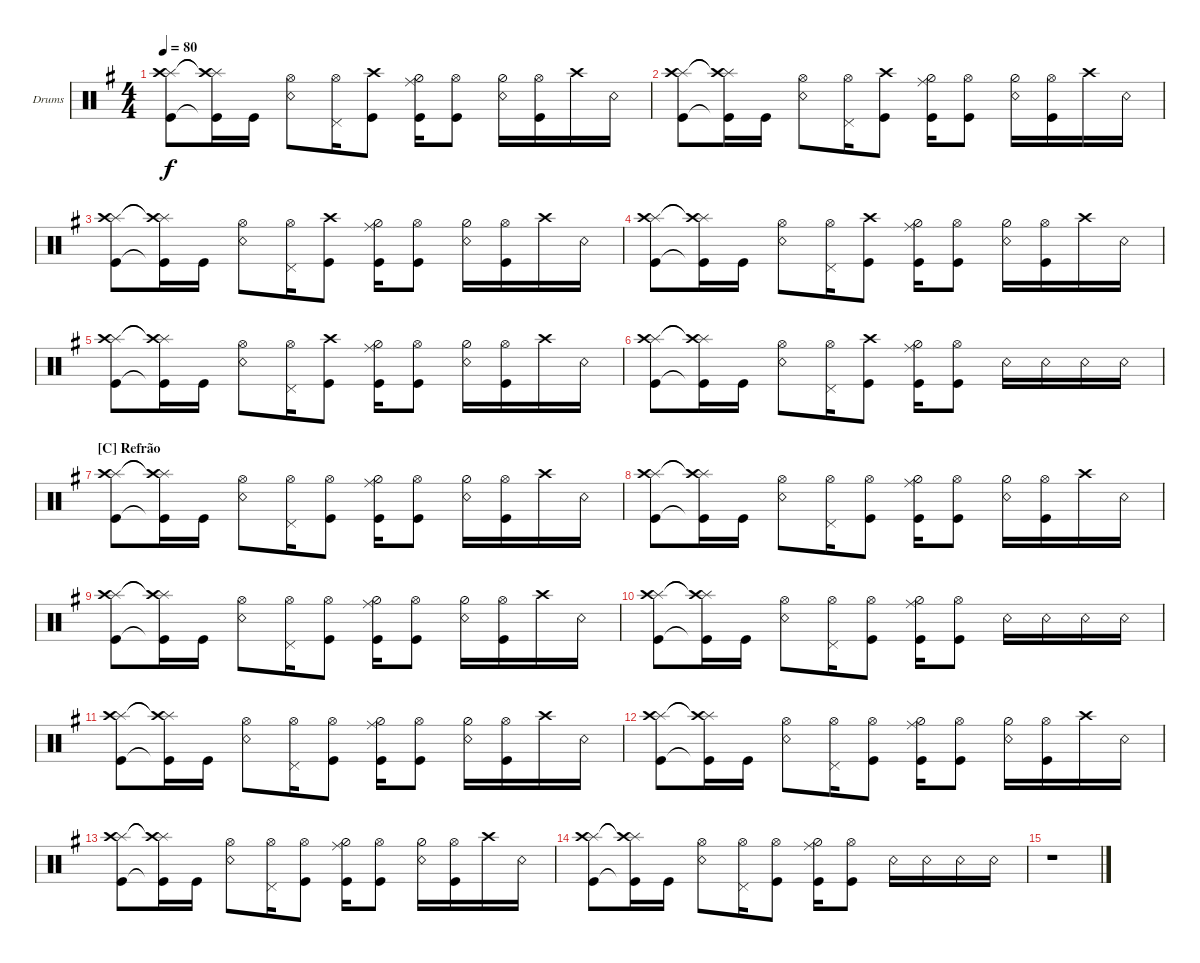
\defaultSystemsLayout 4
\bracketExtendMode groupsimilarinstruments
\firstSystemTrackNameOrientation horizontal
\otherSystemsTrackNameOrientation horizontal
\track ("Drum" "Drums") {multiBarRest instrument percussion}
\staff {score}
\articulation defaults
\ts (4 4)
\tempo 80
\clef neutral
\ks g
("Kick (hit)" "Splash (hit)" "Crash high (hit)").8{dy f} ("Kick (hit)"{t} "Splash (hit)"{t} "Crash high (hit)"{t}).16 "Kick (hit)".16 ("Snare (rim shot)" "Hi-Hat (open)").8 ("Pedal Hi-Hat (hit)" "Hi-Hat (open)").16 ("Kick (hit)" "Crash high (hit)").8 ("Kick (hit)" "Hi-Hat (half)" "Ride (middle)").16 ("Kick (hit)" "Hi-Hat (open)").8 ("Snare (rim shot)" "Hi-Hat (half)").16 ("Kick (hit)" "Hi-Hat (open)").16 "Crash high (hit)".16 "Snare (rim shot)".16 |
("Kick (hit)" "Splash (hit)" "Crash high (hit)").8 ("Kick (hit)"{t} "Splash (hit)"{t} "Crash high (hit)"{t}).16 "Kick (hit)".16 ("Snare (rim shot)" "Hi-Hat (open)").8 ("Pedal Hi-Hat (hit)" "Hi-Hat (open)").16 ("Kick (hit)" "Crash high (hit)").8 ("Kick (hit)" "Hi-Hat (half)" "Ride (middle)").16 ("Kick (hit)" "Hi-Hat (open)").8 ("Snare (rim shot)" "Hi-Hat (half)").16 ("Kick (hit)" "Hi-Hat (open)").16 "Crash high (hit)".16 "Snare (rim shot)".16 |
("Kick (hit)" "Splash (hit)" "Crash high (hit)").8 ("Kick (hit)"{t} "Splash (hit)"{t} "Crash high (hit)"{t}).16 "Kick (hit)".16 ("Snare (rim shot)" "Hi-Hat (open)").8 ("Pedal Hi-Hat (hit)" "Hi-Hat (open)").16 ("Kick (hit)" "Crash high (hit)").8 ("Kick (hit)" "Hi-Hat (half)" "Ride (middle)").16 ("Kick (hit)" "Hi-Hat (open)").8 ("Snare (rim shot)" "Hi-Hat (half)").16 ("Kick (hit)" "Hi-Hat (open)").16 "Crash high (hit)".16 "Snare (rim shot)".16 |
("Kick (hit)" "Splash (hit)" "Crash high (hit)").8 ("Kick (hit)"{t} "Splash (hit)"{t} "Crash high (hit)"{t}).16 "Kick (hit)".16 ("Snare (rim shot)" "Hi-Hat (open)").8 ("Pedal Hi-Hat (hit)" "Hi-Hat (open)").16 ("Kick (hit)" "Crash high (hit)").8 ("Kick (hit)" "Hi-Hat (half)" "Ride (middle)").16 ("Kick (hit)" "Hi-Hat (open)").8 ("Snare (rim shot)" "Hi-Hat (half)").16 ("Kick (hit)" "Hi-Hat (open)").16 "Crash high (hit)".16 "Snare (rim shot)".16 |
("Kick (hit)" "Splash (hit)" "Crash high (hit)").8 ("Kick (hit)"{t} "Splash (hit)"{t} "Crash high (hit)"{t}).16 "Kick (hit)".16 ("Snare (rim shot)" "Hi-Hat (open)").8 ("Pedal Hi-Hat (hit)" "Hi-Hat (open)").16 ("Kick (hit)" "Crash high (hit)").8 ("Kick (hit)" "Hi-Hat (half)" "Ride (middle)").16 ("Kick (hit)" "Hi-Hat (open)").8 ("Snare (rim shot)" "Hi-Hat (half)").16 ("Kick (hit)" "Hi-Hat (open)").16 "Crash high (hit)".16 "Snare (rim shot)".16 |
("Kick (hit)" "Splash (hit)" "Crash high (hit)").8 ("Kick (hit)"{t} "Splash (hit)"{t} "Crash high (hit)"{t}).16 "Kick (hit)".16 ("Snare (rim shot)" "Hi-Hat (open)").8 ("Pedal Hi-Hat (hit)" "Hi-Hat (open)").16 ("Kick (hit)" "Crash high (hit)").8 ("Kick (hit)" "Hi-Hat (half)" "Ride (middle)").16 ("Kick (hit)" "Hi-Hat (open)").8 "Snare (rim shot)".16 "Snare (rim shot)".16 "Snare (rim shot)".16 "Snare (rim shot)".16 |
\section ("C" "Refrão")
("Kick (hit)" "Splash (hit)" "Crash high (hit)").8 ("Kick (hit)"{t} "Splash (hit)"{t} "Crash high (hit)"{t}).16 "Kick (hit)".16 ("Snare (rim shot)" "Hi-Hat (open)").8 ("Pedal Hi-Hat (hit)" "Hi-Hat (open)").16 ("Kick (hit)" "Hi-Hat (open)").8 ("Kick (hit)" "Hi-Hat (half)" "Ride (middle)").16 ("Kick (hit)" "Hi-Hat (open)").8 ("Snare (rim shot)" "Hi-Hat (half)").16 ("Kick (hit)" "Hi-Hat (open)").16 "Crash high (hit)".16 "Snare (rim shot)".16 |
("Kick (hit)" "Splash (hit)" "Crash high (hit)").8 ("Kick (hit)"{t} "Splash (hit)"{t} "Crash high (hit)"{t}).16 "Kick (hit)".16 ("Snare (rim shot)" "Hi-Hat (open)").8 ("Pedal Hi-Hat (hit)" "Hi-Hat (open)").16 ("Kick (hit)" "Hi-Hat (open)").8 ("Kick (hit)" "Hi-Hat (half)" "Ride (middle)").16 ("Kick (hit)" "Hi-Hat (open)").8 ("Snare (rim shot)" "Hi-Hat (half)").16 ("Kick (hit)" "Hi-Hat (open)").16 "Crash high (hit)".16 "Snare (rim shot)".16 |
("Kick (hit)" "Splash (hit)" "Crash high (hit)").8 ("Kick (hit)"{t} "Splash (hit)"{t} "Crash high (hit)"{t}).16 "Kick (hit)".16 ("Snare (rim shot)" "Hi-Hat (open)").8 ("Pedal Hi-Hat (hit)" "Hi-Hat (open)").16 ("Kick (hit)" "Hi-Hat (open)").8 ("Kick (hit)" "Hi-Hat (half)" "Ride (middle)").16 ("Kick (hit)" "Hi-Hat (open)").8 ("Snare (rim shot)" "Hi-Hat (half)").16 ("Kick (hit)" "Hi-Hat (open)").16 "Crash high (hit)".16 "Snare (rim shot)".16 |
("Kick (hit)" "Splash (hit)" "Crash high (hit)").8 ("Kick (hit)"{t} "Splash (hit)"{t} "Crash high (hit)"{t}).16 "Kick (hit)".16 ("Snare (rim shot)" "Hi-Hat (open)").8 ("Pedal Hi-Hat (hit)" "Hi-Hat (open)").16 ("Kick (hit)" "Hi-Hat (open)").8 ("Kick (hit)" "Hi-Hat (half)" "Ride (middle)").16 ("Kick (hit)" "Hi-Hat (open)").8 "Snare (rim shot)".16 "Snare (rim shot)".16 "Snare (rim shot)".16 "Snare (rim shot)".16 |
("Kick (hit)" "Splash (hit)" "Crash high (hit)").8 ("Kick (hit)"{t} "Splash (hit)"{t} "Crash high (hit)"{t}).16 "Kick (hit)".16 ("Snare (rim shot)" "Hi-Hat (open)").8 ("Pedal Hi-Hat (hit)" "Hi-Hat (open)").16 ("Kick (hit)" "Hi-Hat (open)").8 ("Kick (hit)" "Hi-Hat (half)" "Ride (middle)").16 ("Kick (hit)" "Hi-Hat (open)").8 ("Snare (rim shot)" "Hi-Hat (half)").16 ("Kick (hit)" "Hi-Hat (open)").16 "Crash high (hit)".16 "Snare (rim shot)".16 |
("Kick (hit)" "Splash (hit)" "Crash high (hit)").8 ("Kick (hit)"{t} "Splash (hit)"{t} "Crash high (hit)"{t}).16 "Kick (hit)".16 ("Snare (rim shot)" "Hi-Hat (open)").8 ("Pedal Hi-Hat (hit)" "Hi-Hat (open)").16 ("Kick (hit)" "Hi-Hat (open)").8 ("Kick (hit)" "Hi-Hat (half)" "Ride (middle)").16 ("Kick (hit)" "Hi-Hat (open)").8 ("Snare (rim shot)" "Hi-Hat (half)").16 ("Kick (hit)" "Hi-Hat (open)").16 "Crash high (hit)".16 "Snare (rim shot)".16 |
("Kick (hit)" "Splash (hit)" "Crash high (hit)").8 ("Kick (hit)"{t} "Splash (hit)"{t} "Crash high (hit)"{t}).16 "Kick (hit)".16 ("Snare (rim shot)" "Hi-Hat (open)").8 ("Pedal Hi-Hat (hit)" "Hi-Hat (open)").16 ("Kick (hit)" "Hi-Hat (open)").8 ("Kick (hit)" "Hi-Hat (half)" "Ride (middle)").16 ("Kick (hit)" "Hi-Hat (open)").8 ("Snare (rim shot)" "Hi-Hat (half)").16 ("Kick (hit)" "Hi-Hat (open)").16 "Crash high (hit)".16 "Snare (rim shot)".16 |
("Kick (hit)" "Splash (hit)" "Crash high (hit)").8 ("Kick (hit)"{t} "Splash (hit)"{t} "Crash high (hit)"{t}).16 "Kick (hit)".16 ("Snare (rim shot)" "Hi-Hat (open)").8 ("Pedal Hi-Hat (hit)" "Hi-Hat (open)").16 ("Kick (hit)" "Hi-Hat (open)").8 ("Kick (hit)" "Hi-Hat (half)" "Ride (middle)").16 ("Kick (hit)" "Hi-Hat (open)").8 "Snare (rim shot)".16 "Snare (rim shot)".16 "Snare (rim shot)".16 "Snare (rim shot)".16 |
r.1
